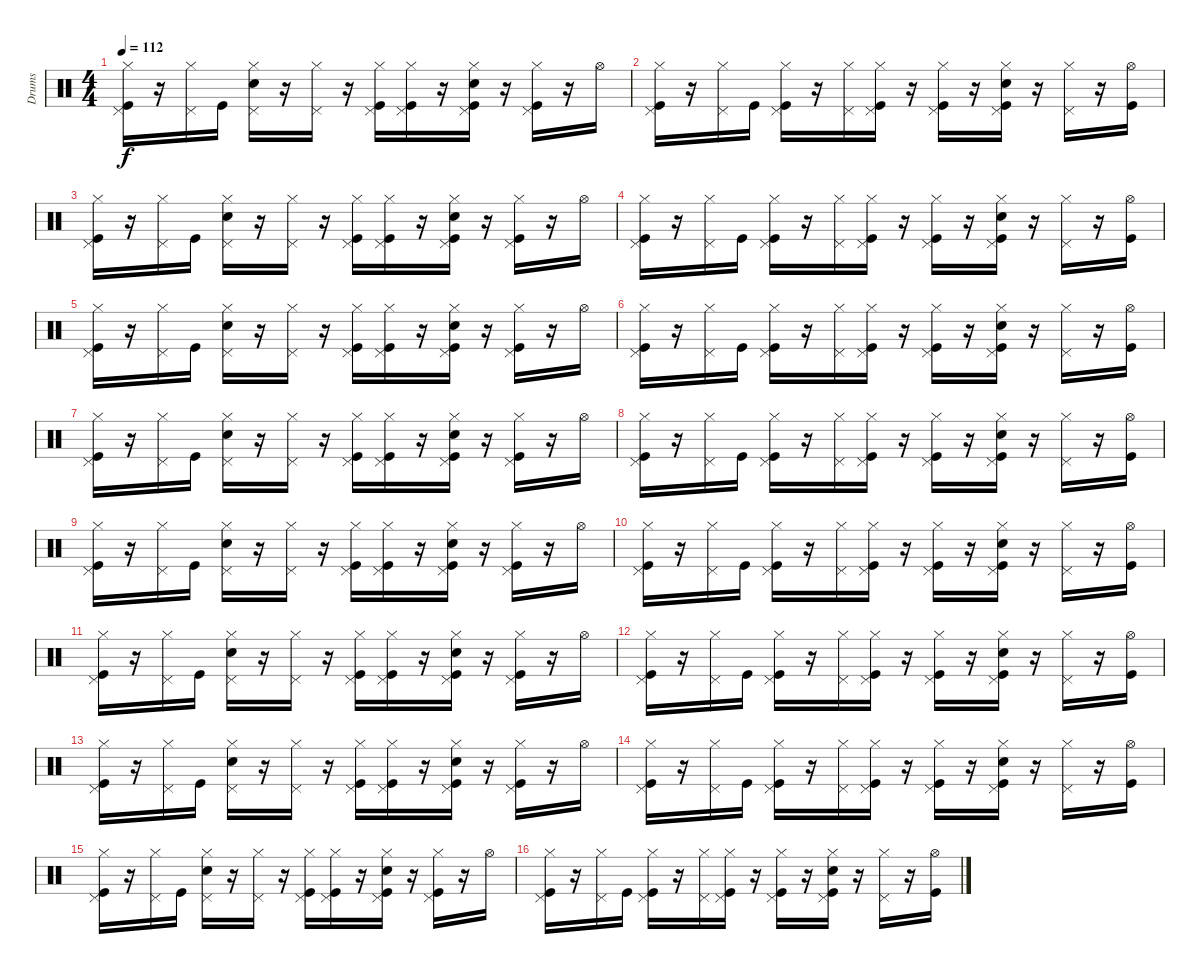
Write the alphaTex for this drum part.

\track ("Drums" "Drums") {instrument percussion}
\staff {score}
\articulation defaults
\ts (4 4)
\tempo 112
\clef neutral
\ks c
("Hi-Hat (closed)" "Pedal Hi-Hat (hit)" "Kick (hit)").16{dy f} r.16 ("Hi-Hat (closed)" "Pedal Hi-Hat (hit)").16 "Kick (hit)".16 ("Hi-Hat (closed)" "Pedal Hi-Hat (hit)" "Snare (hit) 2").16 r.16 ("Hi-Hat (closed)" "Pedal Hi-Hat (hit)").16 r.16 ("Pedal Hi-Hat (hit)" "Kick (hit)" "Hi-Hat (closed)").16 ("Hi-Hat (closed)" "Pedal Hi-Hat (hit)" "Kick (hit)").16 r.16 ("Pedal Hi-Hat (hit)" "Kick (hit)" "Snare (hit) 2" "Hi-Hat (closed)").16 r.16 ("Hi-Hat (closed)" "Kick (hit)" "Pedal Hi-Hat (hit)").16 r.16 "Hi-Hat (open)".16 |
("Hi-Hat (closed)" "Pedal Hi-Hat (hit)" "Kick (hit)").16 r.16 ("Hi-Hat (closed)" "Pedal Hi-Hat (hit)").16 "Kick (hit)".16 ("Hi-Hat (closed)" "Pedal Hi-Hat (hit)" "Kick (hit)").16 r.16 ("Hi-Hat (closed)" "Pedal Hi-Hat (hit)").16 ("Hi-Hat (closed)" "Pedal Hi-Hat (hit)" "Kick (hit)").16 r.16 ("Hi-Hat (closed)" "Pedal Hi-Hat (hit)" "Kick (hit)").16 r.16 ("Hi-Hat (closed)" "Pedal Hi-Hat (hit)" "Kick (hit)" "Snare (hit) 2").16 r.16 ("Hi-Hat (closed)" "Pedal Hi-Hat (hit)").16 r.16 ("Hi-Hat (open)" "Kick (hit)").16 |
("Hi-Hat (closed)" "Pedal Hi-Hat (hit)" "Kick (hit)").16 r.16 ("Hi-Hat (closed)" "Pedal Hi-Hat (hit)").16 "Kick (hit)".16 ("Hi-Hat (closed)" "Pedal Hi-Hat (hit)" "Snare (hit) 2").16 r.16 ("Hi-Hat (closed)" "Pedal Hi-Hat (hit)").16 r.16 ("Pedal Hi-Hat (hit)" "Kick (hit)" "Hi-Hat (closed)").16 ("Hi-Hat (closed)" "Pedal Hi-Hat (hit)" "Kick (hit)").16 r.16 ("Pedal Hi-Hat (hit)" "Kick (hit)" "Snare (hit) 2" "Hi-Hat (closed)").16 r.16 ("Hi-Hat (closed)" "Kick (hit)" "Pedal Hi-Hat (hit)").16 r.16 "Hi-Hat (open)".16 |
("Hi-Hat (closed)" "Pedal Hi-Hat (hit)" "Kick (hit)").16 r.16 ("Hi-Hat (closed)" "Pedal Hi-Hat (hit)").16 "Kick (hit)".16 ("Hi-Hat (closed)" "Pedal Hi-Hat (hit)" "Kick (hit)").16 r.16 ("Hi-Hat (closed)" "Pedal Hi-Hat (hit)").16 ("Hi-Hat (closed)" "Pedal Hi-Hat (hit)" "Kick (hit)").16 r.16 ("Hi-Hat (closed)" "Pedal Hi-Hat (hit)" "Kick (hit)").16 r.16 ("Hi-Hat (closed)" "Pedal Hi-Hat (hit)" "Kick (hit)" "Snare (hit) 2").16 r.16 ("Hi-Hat (closed)" "Pedal Hi-Hat (hit)").16 r.16 ("Hi-Hat (open)" "Kick (hit)").16 |
("Hi-Hat (closed)" "Pedal Hi-Hat (hit)" "Kick (hit)").16 r.16 ("Hi-Hat (closed)" "Pedal Hi-Hat (hit)").16 "Kick (hit)".16 ("Hi-Hat (closed)" "Pedal Hi-Hat (hit)" "Snare (hit) 2").16 r.16 ("Hi-Hat (closed)" "Pedal Hi-Hat (hit)").16 r.16 ("Pedal Hi-Hat (hit)" "Kick (hit)" "Hi-Hat (closed)").16 ("Hi-Hat (closed)" "Pedal Hi-Hat (hit)" "Kick (hit)").16 r.16 ("Pedal Hi-Hat (hit)" "Kick (hit)" "Snare (hit) 2" "Hi-Hat (closed)").16 r.16 ("Hi-Hat (closed)" "Kick (hit)" "Pedal Hi-Hat (hit)").16 r.16 "Hi-Hat (open)".16 |
("Hi-Hat (closed)" "Pedal Hi-Hat (hit)" "Kick (hit)").16 r.16 ("Hi-Hat (closed)" "Pedal Hi-Hat (hit)").16 "Kick (hit)".16 ("Hi-Hat (closed)" "Pedal Hi-Hat (hit)" "Kick (hit)").16 r.16 ("Hi-Hat (closed)" "Pedal Hi-Hat (hit)").16 ("Hi-Hat (closed)" "Pedal Hi-Hat (hit)" "Kick (hit)").16 r.16 ("Hi-Hat (closed)" "Pedal Hi-Hat (hit)" "Kick (hit)").16 r.16 ("Hi-Hat (closed)" "Pedal Hi-Hat (hit)" "Kick (hit)" "Snare (hit) 2").16 r.16 ("Hi-Hat (closed)" "Pedal Hi-Hat (hit)").16 r.16 ("Hi-Hat (open)" "Kick (hit)").16 |
("Hi-Hat (closed)" "Pedal Hi-Hat (hit)" "Kick (hit)").16 r.16 ("Hi-Hat (closed)" "Pedal Hi-Hat (hit)").16 "Kick (hit)".16 ("Hi-Hat (closed)" "Pedal Hi-Hat (hit)" "Snare (hit) 2").16 r.16 ("Hi-Hat (closed)" "Pedal Hi-Hat (hit)").16 r.16 ("Pedal Hi-Hat (hit)" "Kick (hit)" "Hi-Hat (closed)").16 ("Hi-Hat (closed)" "Pedal Hi-Hat (hit)" "Kick (hit)").16 r.16 ("Pedal Hi-Hat (hit)" "Kick (hit)" "Snare (hit) 2" "Hi-Hat (closed)").16 r.16 ("Hi-Hat (closed)" "Kick (hit)" "Pedal Hi-Hat (hit)").16 r.16 "Hi-Hat (open)".16 |
("Hi-Hat (closed)" "Pedal Hi-Hat (hit)" "Kick (hit)").16 r.16 ("Hi-Hat (closed)" "Pedal Hi-Hat (hit)").16 "Kick (hit)".16 ("Hi-Hat (closed)" "Pedal Hi-Hat (hit)" "Kick (hit)").16 r.16 ("Hi-Hat (closed)" "Pedal Hi-Hat (hit)").16 ("Hi-Hat (closed)" "Pedal Hi-Hat (hit)" "Kick (hit)").16 r.16 ("Hi-Hat (closed)" "Pedal Hi-Hat (hit)" "Kick (hit)").16 r.16 ("Hi-Hat (closed)" "Pedal Hi-Hat (hit)" "Kick (hit)" "Snare (hit) 2").16 r.16 ("Hi-Hat (closed)" "Pedal Hi-Hat (hit)").16 r.16 ("Hi-Hat (open)" "Kick (hit)").16 |
("Hi-Hat (closed)" "Pedal Hi-Hat (hit)" "Kick (hit)").16 r.16 ("Hi-Hat (closed)" "Pedal Hi-Hat (hit)").16 "Kick (hit)".16 ("Hi-Hat (closed)" "Pedal Hi-Hat (hit)" "Snare (hit) 2").16 r.16 ("Hi-Hat (closed)" "Pedal Hi-Hat (hit)").16 r.16 ("Pedal Hi-Hat (hit)" "Kick (hit)" "Hi-Hat (closed)").16 ("Hi-Hat (closed)" "Pedal Hi-Hat (hit)" "Kick (hit)").16 r.16 ("Pedal Hi-Hat (hit)" "Kick (hit)" "Snare (hit) 2" "Hi-Hat (closed)").16 r.16 ("Hi-Hat (closed)" "Kick (hit)" "Pedal Hi-Hat (hit)").16 r.16 "Hi-Hat (open)".16 |
("Hi-Hat (closed)" "Pedal Hi-Hat (hit)" "Kick (hit)").16 r.16 ("Hi-Hat (closed)" "Pedal Hi-Hat (hit)").16 "Kick (hit)".16 ("Hi-Hat (closed)" "Pedal Hi-Hat (hit)" "Kick (hit)").16 r.16 ("Hi-Hat (closed)" "Pedal Hi-Hat (hit)").16 ("Hi-Hat (closed)" "Pedal Hi-Hat (hit)" "Kick (hit)").16 r.16 ("Hi-Hat (closed)" "Pedal Hi-Hat (hit)" "Kick (hit)").16 r.16 ("Hi-Hat (closed)" "Pedal Hi-Hat (hit)" "Kick (hit)" "Snare (hit) 2").16 r.16 ("Hi-Hat (closed)" "Pedal Hi-Hat (hit)").16 r.16 ("Hi-Hat (open)" "Kick (hit)").16 |
("Hi-Hat (closed)" "Pedal Hi-Hat (hit)" "Kick (hit)").16 r.16 ("Hi-Hat (closed)" "Pedal Hi-Hat (hit)").16 "Kick (hit)".16 ("Hi-Hat (closed)" "Pedal Hi-Hat (hit)" "Snare (hit) 2").16 r.16 ("Hi-Hat (closed)" "Pedal Hi-Hat (hit)").16 r.16 ("Pedal Hi-Hat (hit)" "Kick (hit)" "Hi-Hat (closed)").16 ("Hi-Hat (closed)" "Pedal Hi-Hat (hit)" "Kick (hit)").16 r.16 ("Pedal Hi-Hat (hit)" "Kick (hit)" "Snare (hit) 2" "Hi-Hat (closed)").16 r.16 ("Hi-Hat (closed)" "Kick (hit)" "Pedal Hi-Hat (hit)").16 r.16 "Hi-Hat (open)".16 |
("Hi-Hat (closed)" "Pedal Hi-Hat (hit)" "Kick (hit)").16 r.16 ("Hi-Hat (closed)" "Pedal Hi-Hat (hit)").16 "Kick (hit)".16 ("Hi-Hat (closed)" "Pedal Hi-Hat (hit)" "Kick (hit)").16 r.16 ("Hi-Hat (closed)" "Pedal Hi-Hat (hit)").16 ("Hi-Hat (closed)" "Pedal Hi-Hat (hit)" "Kick (hit)").16 r.16 ("Hi-Hat (closed)" "Pedal Hi-Hat (hit)" "Kick (hit)").16 r.16 ("Hi-Hat (closed)" "Pedal Hi-Hat (hit)" "Kick (hit)" "Snare (hit) 2").16 r.16 ("Hi-Hat (closed)" "Pedal Hi-Hat (hit)").16 r.16 ("Hi-Hat (open)" "Kick (hit)").16 |
("Hi-Hat (closed)" "Pedal Hi-Hat (hit)" "Kick (hit)").16 r.16 ("Hi-Hat (closed)" "Pedal Hi-Hat (hit)").16 "Kick (hit)".16 ("Hi-Hat (closed)" "Pedal Hi-Hat (hit)" "Snare (hit) 2").16 r.16 ("Hi-Hat (closed)" "Pedal Hi-Hat (hit)").16 r.16 ("Pedal Hi-Hat (hit)" "Kick (hit)" "Hi-Hat (closed)").16 ("Hi-Hat (closed)" "Pedal Hi-Hat (hit)" "Kick (hit)").16 r.16 ("Pedal Hi-Hat (hit)" "Kick (hit)" "Snare (hit) 2" "Hi-Hat (closed)").16 r.16 ("Hi-Hat (closed)" "Kick (hit)" "Pedal Hi-Hat (hit)").16 r.16 "Hi-Hat (open)".16 |
("Hi-Hat (closed)" "Pedal Hi-Hat (hit)" "Kick (hit)").16 r.16 ("Hi-Hat (closed)" "Pedal Hi-Hat (hit)").16 "Kick (hit)".16 ("Hi-Hat (closed)" "Pedal Hi-Hat (hit)" "Kick (hit)").16 r.16 ("Hi-Hat (closed)" "Pedal Hi-Hat (hit)").16 ("Hi-Hat (closed)" "Pedal Hi-Hat (hit)" "Kick (hit)").16 r.16 ("Hi-Hat (closed)" "Pedal Hi-Hat (hit)" "Kick (hit)").16 r.16 ("Hi-Hat (closed)" "Pedal Hi-Hat (hit)" "Kick (hit)" "Snare (hit) 2").16 r.16 ("Hi-Hat (closed)" "Pedal Hi-Hat (hit)").16 r.16 ("Hi-Hat (open)" "Kick (hit)").16 |
("Hi-Hat (closed)" "Pedal Hi-Hat (hit)" "Kick (hit)").16 r.16 ("Hi-Hat (closed)" "Pedal Hi-Hat (hit)").16 "Kick (hit)".16 ("Hi-Hat (closed)" "Pedal Hi-Hat (hit)" "Snare (hit) 2").16 r.16 ("Hi-Hat (closed)" "Pedal Hi-Hat (hit)").16 r.16 ("Pedal Hi-Hat (hit)" "Kick (hit)" "Hi-Hat (closed)").16 ("Hi-Hat (closed)" "Pedal Hi-Hat (hit)" "Kick (hit)").16 r.16 ("Pedal Hi-Hat (hit)" "Kick (hit)" "Snare (hit) 2" "Hi-Hat (closed)").16 r.16 ("Hi-Hat (closed)" "Kick (hit)" "Pedal Hi-Hat (hit)").16 r.16 "Hi-Hat (open)".16 |
("Hi-Hat (closed)" "Pedal Hi-Hat (hit)" "Kick (hit)").16 r.16 ("Hi-Hat (closed)" "Pedal Hi-Hat (hit)").16 "Kick (hit)".16 ("Hi-Hat (closed)" "Pedal Hi-Hat (hit)" "Kick (hit)").16 r.16 ("Hi-Hat (closed)" "Pedal Hi-Hat (hit)").16 ("Hi-Hat (closed)" "Pedal Hi-Hat (hit)" "Kick (hit)").16 r.16 ("Hi-Hat (closed)" "Pedal Hi-Hat (hit)" "Kick (hit)").16 r.16 ("Hi-Hat (closed)" "Pedal Hi-Hat (hit)" "Kick (hit)" "Snare (hit) 2").16 r.16 ("Hi-Hat (closed)" "Pedal Hi-Hat (hit)").16 r.16 ("Hi-Hat (open)" "Kick (hit)").16
